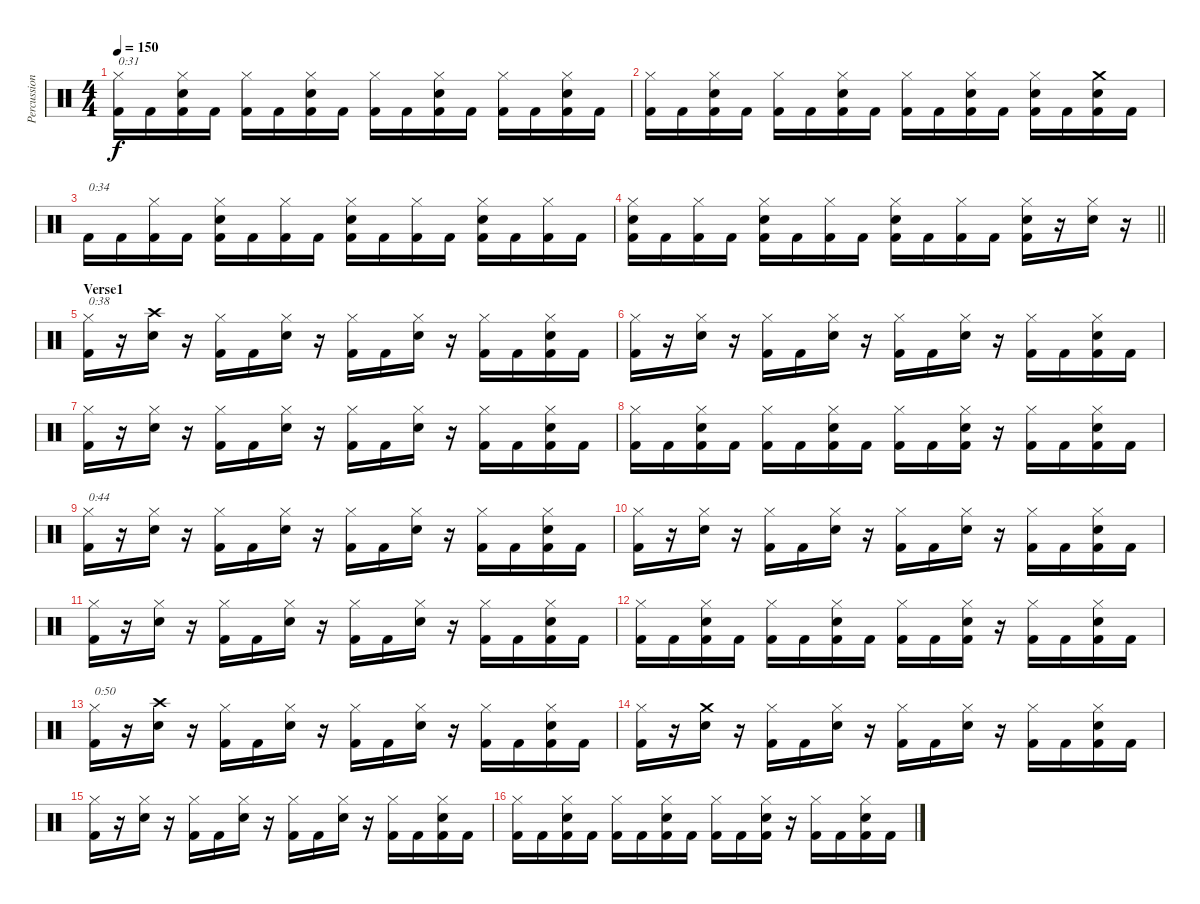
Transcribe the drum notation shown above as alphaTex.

\track ("Percussion" "Percussion") {instrument percussion}
\staff {score}
\articulation defaults
\ts (4 4)
\tempo 150
\clef neutral
\ks c
("Hi-Hat (closed)" "Kick (hit) 2").16{txt "0:31" dy f} "Kick (hit) 2".16 ("Hi-Hat (closed)" "Electric Snare (hit)" "Kick (hit) 2").16 "Kick (hit) 2".16 ("Hi-Hat (closed)" "Kick (hit) 2").16 "Kick (hit) 2".16 ("Hi-Hat (closed)" "Electric Snare (hit)" "Kick (hit) 2").16 "Kick (hit) 2".16 ("Hi-Hat (closed)" "Kick (hit) 2").16 "Kick (hit) 2".16 ("Hi-Hat (closed)" "Electric Snare (hit)" "Kick (hit) 2").16 "Kick (hit) 2".16 ("Hi-Hat (closed)" "Kick (hit) 2").16 "Kick (hit) 2".16 ("Hi-Hat (closed)" "Electric Snare (hit)" "Kick (hit) 2").16 "Kick (hit) 2".16 |
("Hi-Hat (closed)" "Kick (hit) 2").16 "Kick (hit) 2".16 ("Hi-Hat (closed)" "Electric Snare (hit)" "Kick (hit) 2").16 "Kick (hit) 2".16 ("Hi-Hat (closed)" "Kick (hit) 2").16 "Kick (hit) 2".16 ("Hi-Hat (closed)" "Electric Snare (hit)" "Kick (hit) 2").16 "Kick (hit) 2".16 ("Hi-Hat (closed)" "Kick (hit) 2").16 "Kick (hit) 2".16 ("Hi-Hat (closed)" "Electric Snare (hit)" "Kick (hit) 2").16 "Kick (hit) 2".16 ("Hi-Hat (closed)" "Electric Snare (hit)" "Kick (hit) 2").16 "Kick (hit) 2".16 ("Crash medium (hit)" "Electric Snare (hit)" "Kick (hit) 2").16 "Kick (hit) 2".16 |
"Kick (hit) 2".16{txt "0:34"} "Kick (hit) 2".16 ("Hi-Hat (closed)" "Kick (hit) 2").16 "Kick (hit) 2".16 ("Hi-Hat (closed)" "Electric Snare (hit)" "Kick (hit) 2").16 "Kick (hit) 2".16 ("Hi-Hat (closed)" "Kick (hit) 2").16 "Kick (hit) 2".16 ("Hi-Hat (closed)" "Electric Snare (hit)" "Kick (hit) 2").16 "Kick (hit) 2".16 ("Hi-Hat (closed)" "Kick (hit) 2").16 "Kick (hit) 2".16 ("Hi-Hat (closed)" "Electric Snare (hit)" "Kick (hit) 2").16 "Kick (hit) 2".16 ("Hi-Hat (closed)" "Kick (hit) 2").16 "Kick (hit) 2".16 |
\barLineRight lightlight
("Hi-Hat (closed)" "Electric Snare (hit)" "Kick (hit) 2").16 "Kick (hit) 2".16 ("Hi-Hat (closed)" "Kick (hit) 2").16 "Kick (hit) 2".16 ("Hi-Hat (closed)" "Electric Snare (hit)" "Kick (hit) 2").16 "Kick (hit) 2".16 ("Hi-Hat (closed)" "Kick (hit) 2").16 "Kick (hit) 2".16 ("Hi-Hat (closed)" "Electric Snare (hit)" "Kick (hit) 2").16 "Kick (hit) 2".16 ("Hi-Hat (closed)" "Kick (hit) 2").16 "Kick (hit) 2".16 ("Hi-Hat (closed)" "Electric Snare (hit)" "Kick (hit) 2").16 r.16 ("Hi-Hat (closed)" "Electric Snare (hit)").16 r.16 |
\section ("" "Verse1")
("Hi-Hat (closed)" "Kick (hit) 2").16{txt "0:38"} r.16 ("Crash high (hit)" "Electric Snare (hit)").16 r.16 ("Hi-Hat (closed)" "Kick (hit) 2").16 "Kick (hit) 2".16 ("Hi-Hat (closed)" "Electric Snare (hit)").16 r.16 ("Hi-Hat (closed)" "Kick (hit) 2").16 "Kick (hit) 2".16 ("Hi-Hat (closed)" "Electric Snare (hit)").16 r.16 ("Hi-Hat (closed)" "Kick (hit) 2").16 "Kick (hit) 2".16 ("Hi-Hat (closed)" "Electric Snare (hit)" "Kick (hit) 2").16 "Kick (hit) 2".16 |
("Hi-Hat (closed)" "Kick (hit) 2").16 r.16 ("Hi-Hat (closed)" "Electric Snare (hit)").16 r.16 ("Hi-Hat (closed)" "Kick (hit) 2").16 "Kick (hit) 2".16 ("Hi-Hat (closed)" "Electric Snare (hit)").16 r.16 ("Hi-Hat (closed)" "Kick (hit) 2").16 "Kick (hit) 2".16 ("Hi-Hat (closed)" "Electric Snare (hit)").16 r.16 ("Hi-Hat (closed)" "Kick (hit) 2").16 "Kick (hit) 2".16 ("Hi-Hat (closed)" "Electric Snare (hit)" "Kick (hit) 2").16 "Kick (hit) 2".16 |
("Hi-Hat (closed)" "Kick (hit) 2").16 r.16 ("Hi-Hat (closed)" "Electric Snare (hit)").16 r.16 ("Hi-Hat (closed)" "Kick (hit) 2").16 "Kick (hit) 2".16 ("Hi-Hat (closed)" "Electric Snare (hit)").16 r.16 ("Hi-Hat (closed)" "Kick (hit) 2").16 "Kick (hit) 2".16 ("Hi-Hat (closed)" "Electric Snare (hit)").16 r.16 ("Hi-Hat (closed)" "Kick (hit) 2").16 "Kick (hit) 2".16 ("Hi-Hat (closed)" "Electric Snare (hit)" "Kick (hit) 2").16 "Kick (hit) 2".16 |
("Hi-Hat (closed)" "Kick (hit) 2").16 "Kick (hit) 2".16 ("Hi-Hat (closed)" "Electric Snare (hit)" "Kick (hit) 2").16 "Kick (hit) 2".16 ("Hi-Hat (closed)" "Kick (hit) 2").16 "Kick (hit) 2".16 ("Hi-Hat (closed)" "Electric Snare (hit)" "Kick (hit) 2").16 "Kick (hit) 2".16 ("Hi-Hat (closed)" "Kick (hit) 2").16 "Kick (hit) 2".16 ("Hi-Hat (closed)" "Electric Snare (hit)" "Kick (hit) 2").16 r.16 ("Hi-Hat (closed)" "Kick (hit) 2").16 "Kick (hit) 2".16 ("Hi-Hat (closed)" "Electric Snare (hit)" "Kick (hit) 2").16 "Kick (hit) 2".16 |
("Hi-Hat (closed)" "Kick (hit) 2").16{txt "0:44"} r.16 ("Hi-Hat (closed)" "Electric Snare (hit)").16 r.16 ("Hi-Hat (closed)" "Kick (hit) 2").16 "Kick (hit) 2".16 ("Hi-Hat (closed)" "Electric Snare (hit)").16 r.16 ("Hi-Hat (closed)" "Kick (hit) 2").16 "Kick (hit) 2".16 ("Hi-Hat (closed)" "Electric Snare (hit)").16 r.16 ("Hi-Hat (closed)" "Kick (hit) 2").16 "Kick (hit) 2".16 ("Hi-Hat (closed)" "Electric Snare (hit)" "Kick (hit) 2").16 "Kick (hit) 2".16 |
("Hi-Hat (closed)" "Kick (hit) 2").16 r.16 ("Hi-Hat (closed)" "Electric Snare (hit)").16 r.16 ("Hi-Hat (closed)" "Kick (hit) 2").16 "Kick (hit) 2".16 ("Hi-Hat (closed)" "Electric Snare (hit)").16 r.16 ("Hi-Hat (closed)" "Kick (hit) 2").16 "Kick (hit) 2".16 ("Hi-Hat (closed)" "Electric Snare (hit)").16 r.16 ("Hi-Hat (closed)" "Kick (hit) 2").16 "Kick (hit) 2".16 ("Hi-Hat (closed)" "Electric Snare (hit)" "Kick (hit) 2").16 "Kick (hit) 2".16 |
("Hi-Hat (closed)" "Kick (hit) 2").16 r.16 ("Hi-Hat (closed)" "Electric Snare (hit)").16 r.16 ("Hi-Hat (closed)" "Kick (hit) 2").16 "Kick (hit) 2".16 ("Hi-Hat (closed)" "Electric Snare (hit)").16 r.16 ("Hi-Hat (closed)" "Kick (hit) 2").16 "Kick (hit) 2".16 ("Hi-Hat (closed)" "Electric Snare (hit)").16 r.16 ("Hi-Hat (closed)" "Kick (hit) 2").16 "Kick (hit) 2".16 ("Hi-Hat (closed)" "Electric Snare (hit)" "Kick (hit) 2").16 "Kick (hit) 2".16 |
("Hi-Hat (closed)" "Kick (hit) 2").16 "Kick (hit) 2".16 ("Hi-Hat (closed)" "Electric Snare (hit)" "Kick (hit) 2").16 "Kick (hit) 2".16 ("Hi-Hat (closed)" "Kick (hit) 2").16 "Kick (hit) 2".16 ("Hi-Hat (closed)" "Electric Snare (hit)" "Kick (hit) 2").16 "Kick (hit) 2".16 ("Hi-Hat (closed)" "Kick (hit) 2").16 "Kick (hit) 2".16 ("Hi-Hat (closed)" "Electric Snare (hit)" "Kick (hit) 2").16 r.16 ("Hi-Hat (closed)" "Kick (hit) 2").16 "Kick (hit) 2".16 ("Hi-Hat (closed)" "Electric Snare (hit)" "Kick (hit) 2").16 "Kick (hit) 2".16 |
("Hi-Hat (closed)" "Kick (hit) 2").16{txt "0:50"} r.16 ("Crash high (hit)" "Electric Snare (hit)").16 r.16 ("Hi-Hat (closed)" "Kick (hit) 2").16 "Kick (hit) 2".16 ("Hi-Hat (closed)" "Electric Snare (hit)").16 r.16 ("Hi-Hat (closed)" "Kick (hit) 2").16 "Kick (hit) 2".16 ("Hi-Hat (closed)" "Electric Snare (hit)").16 r.16 ("Hi-Hat (closed)" "Kick (hit) 2").16 "Kick (hit) 2".16 ("Hi-Hat (closed)" "Electric Snare (hit)" "Kick (hit) 2").16 "Kick (hit) 2".16 |
("Hi-Hat (closed)" "Kick (hit) 2").16 r.16 ("Crash medium (hit)" "Electric Snare (hit)").16 r.16 ("Hi-Hat (closed)" "Kick (hit) 2").16 "Kick (hit) 2".16 ("Hi-Hat (closed)" "Electric Snare (hit)").16 r.16 ("Hi-Hat (closed)" "Kick (hit) 2").16 "Kick (hit) 2".16 ("Hi-Hat (closed)" "Electric Snare (hit)").16 r.16 ("Hi-Hat (closed)" "Kick (hit) 2").16 "Kick (hit) 2".16 ("Hi-Hat (closed)" "Electric Snare (hit)" "Kick (hit) 2").16 "Kick (hit) 2".16 |
("Hi-Hat (closed)" "Kick (hit) 2").16 r.16 ("Hi-Hat (closed)" "Electric Snare (hit)").16 r.16 ("Hi-Hat (closed)" "Kick (hit) 2").16 "Kick (hit) 2".16 ("Hi-Hat (closed)" "Electric Snare (hit)").16 r.16 ("Hi-Hat (closed)" "Kick (hit) 2").16 "Kick (hit) 2".16 ("Hi-Hat (closed)" "Electric Snare (hit)").16 r.16 ("Hi-Hat (closed)" "Kick (hit) 2").16 "Kick (hit) 2".16 ("Hi-Hat (closed)" "Electric Snare (hit)" "Kick (hit) 2").16 "Kick (hit) 2".16 |
("Hi-Hat (closed)" "Kick (hit) 2").16 "Kick (hit) 2".16 ("Hi-Hat (closed)" "Electric Snare (hit)" "Kick (hit) 2").16 "Kick (hit) 2".16 ("Hi-Hat (closed)" "Kick (hit) 2").16 "Kick (hit) 2".16 ("Hi-Hat (closed)" "Electric Snare (hit)" "Kick (hit) 2").16 "Kick (hit) 2".16 ("Hi-Hat (closed)" "Kick (hit) 2").16 "Kick (hit) 2".16 ("Hi-Hat (closed)" "Electric Snare (hit)" "Kick (hit) 2").16 r.16 ("Hi-Hat (closed)" "Kick (hit) 2").16 "Kick (hit) 2".16 ("Hi-Hat (closed)" "Electric Snare (hit)" "Kick (hit) 2").16 "Kick (hit) 2".16
